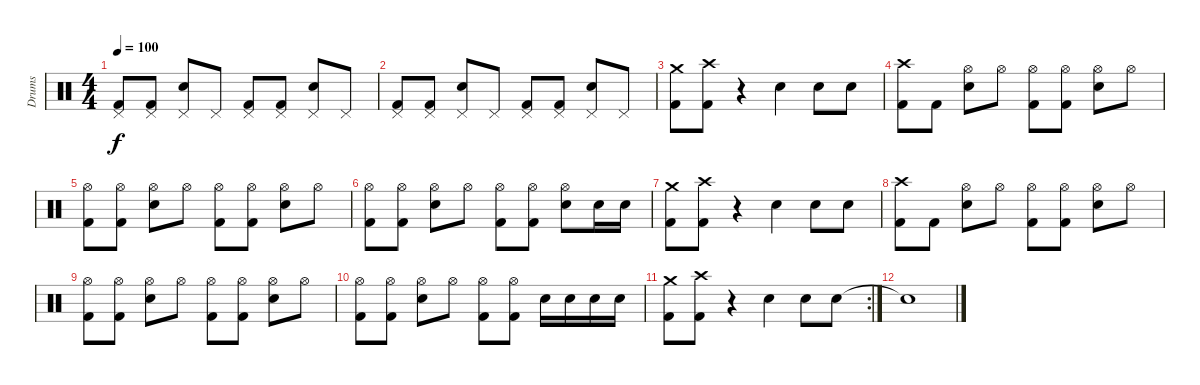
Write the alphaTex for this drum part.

\track ("Drums" "Drums") {instrument percussion}
\staff {score}
\articulation defaults
\ts (4 4)
\tempo 100
\clef neutral
\ks c
("Pedal Hi-Hat (hit)" "Kick (hit) 2").8{dy f} ("Pedal Hi-Hat (hit)" "Kick (hit) 2").8 ("Pedal Hi-Hat (hit)" "Snare (hit) 2").8 "Pedal Hi-Hat (hit)".8 ("Pedal Hi-Hat (hit)" "Kick (hit) 2").8 ("Pedal Hi-Hat (hit)" "Kick (hit) 2").8 ("Pedal Hi-Hat (hit)" "Snare (hit) 2").8 "Pedal Hi-Hat (hit)".8 |
("Pedal Hi-Hat (hit)" "Kick (hit) 2").8 ("Pedal Hi-Hat (hit)" "Kick (hit) 2").8 ("Pedal Hi-Hat (hit)" "Snare (hit) 2").8 "Pedal Hi-Hat (hit)".8 ("Pedal Hi-Hat (hit)" "Kick (hit) 2").8 ("Pedal Hi-Hat (hit)" "Kick (hit) 2").8 ("Pedal Hi-Hat (hit)" "Snare (hit) 2").8 "Pedal Hi-Hat (hit)".8 |
("Crash medium (hit)" "Kick (hit) 2").8 ("Crash high (hit)" "Kick (hit) 2").8 r.4 "Snare (hit) 2".4 "Snare (hit) 2".8 "Snare (hit) 2".8 |
("Crash high (hit)" "Kick (hit) 2").8 "Kick (hit) 2".8 ("Hi-Hat (open)" "Snare (hit) 2").8 "Hi-Hat (open)".8 ("Hi-Hat (open)" "Kick (hit) 2").8 ("Hi-Hat (open)" "Kick (hit) 2").8 ("Hi-Hat (open)" "Snare (hit) 2").8 "Hi-Hat (open)".8 |
("Hi-Hat (open)" "Kick (hit) 2").8 ("Hi-Hat (open)" "Kick (hit) 2").8 ("Hi-Hat (open)" "Snare (hit) 2").8 "Hi-Hat (open)".8 ("Hi-Hat (open)" "Kick (hit) 2").8 ("Hi-Hat (open)" "Kick (hit) 2").8 ("Hi-Hat (open)" "Snare (hit) 2").8 "Hi-Hat (open)".8 |
("Hi-Hat (open)" "Kick (hit) 2").8 ("Hi-Hat (open)" "Kick (hit) 2").8 ("Hi-Hat (open)" "Snare (hit) 2").8 "Hi-Hat (open)".8 ("Hi-Hat (open)" "Kick (hit) 2").8 ("Hi-Hat (open)" "Kick (hit) 2").8 ("Hi-Hat (open)" "Snare (hit) 2").8 "Snare (hit) 2".16 "Snare (hit) 2".16 |
("Crash medium (hit)" "Kick (hit) 2").8 ("Crash high (hit)" "Kick (hit) 2").8 r.4 "Snare (hit) 2".4 "Snare (hit) 2".8 "Snare (hit) 2".8 |
("Crash high (hit)" "Kick (hit) 2").8 "Kick (hit) 2".8 ("Hi-Hat (open)" "Snare (hit) 2").8 "Hi-Hat (open)".8 ("Hi-Hat (open)" "Kick (hit) 2").8 ("Hi-Hat (open)" "Kick (hit) 2").8 ("Hi-Hat (open)" "Snare (hit) 2").8 "Hi-Hat (open)".8 |
("Hi-Hat (open)" "Kick (hit) 2").8 ("Hi-Hat (open)" "Kick (hit) 2").8 ("Hi-Hat (open)" "Snare (hit) 2").8 "Hi-Hat (open)".8 ("Hi-Hat (open)" "Kick (hit) 2").8 ("Hi-Hat (open)" "Kick (hit) 2").8 ("Hi-Hat (open)" "Snare (hit) 2").8 "Hi-Hat (open)".8 |
("Hi-Hat (open)" "Kick (hit) 2").8 ("Hi-Hat (open)" "Kick (hit) 2").8 ("Hi-Hat (open)" "Snare (hit) 2").8 "Hi-Hat (open)".8 ("Hi-Hat (open)" "Kick (hit) 2").8 ("Hi-Hat (open)" "Kick (hit) 2").8 "Snare (hit) 2".16 "Snare (hit) 2".16 "Snare (hit) 2".16 "Snare (hit) 2".16 |
\rc 2
("Crash medium (hit)" "Kick (hit) 2").8 ("Crash high (hit)" "Kick (hit) 2").8 r.4 "Snare (hit) 2".4 "Snare (hit) 2".8 "Snare (hit) 2".8 |
"Snare (hit)"{t}.1
